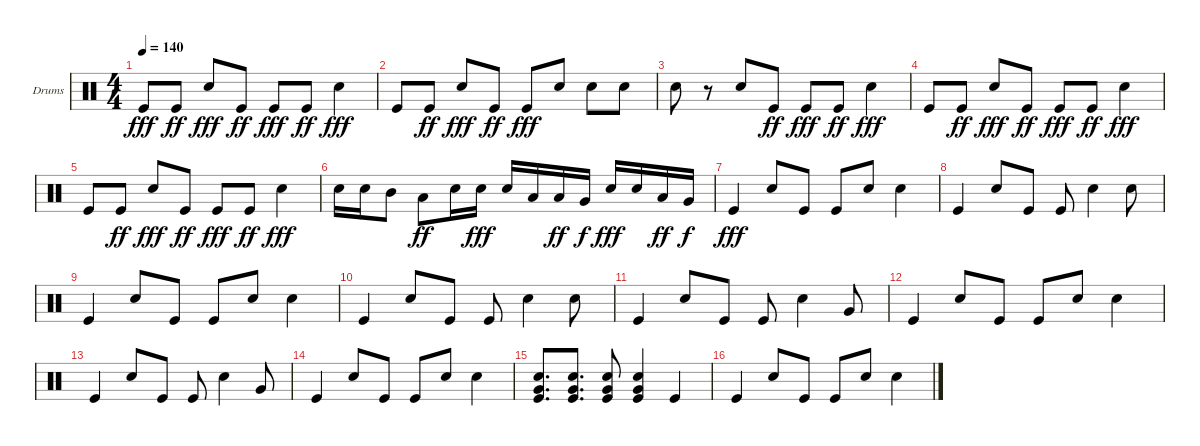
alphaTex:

\defaultSystemsLayout 4
\bracketExtendMode groupsimilarinstruments
\firstSystemTrackNameOrientation horizontal
\otherSystemsTrackNameOrientation horizontal
\track ("Helders" "Drums") {instrument percussion}
\staff {score}
\articulation defaults
\ts (4 4)
\tempo 140
\clef neutral
\ks c "Kick (hit)".8{dy fff} "Kick (hit)".8{dy ff} "Snare (hit) 2".8{dy fff} "Kick (hit)".8{dy ff} "Kick (hit)".8{dy fff} "Kick (hit)".8{dy ff} "Snare (hit) 2".4{dy fff}
|
"Kick (hit)".8 "Kick (hit)".8{dy ff} "Snare (hit) 2".8{dy fff} "Kick (hit)".8{dy ff} "Kick (hit)".8{dy fff} "Snare (hit) 2".8 "Snare (hit) 2".8 "Snare (hit) 2".8 |
"Snare (hit) 2".8 r.8 "Snare (hit) 2".8 "Kick (hit)".8{dy ff} "Kick (hit)".8{dy fff} "Kick (hit)".8{dy ff} "Snare (hit) 2".4{dy fff} |
"Kick (hit)".8 "Kick (hit)".8{dy ff} "Snare (hit) 2".8{dy fff} "Kick (hit)".8{dy ff} "Kick (hit)".8{dy fff} "Kick (hit)".8{dy ff} "Snare (hit) 2".4{dy fff} |
"Kick (hit)".8 "Kick (hit)".8{dy ff} "Snare (hit) 2".8{dy fff} "Kick (hit)".8{dy ff} "Kick (hit)".8{dy fff} "Kick (hit)".8{dy ff} "Snare (hit) 2".4{dy fff} |
"Snare (hit) 2".16 "Snare (hit) 2".16 "Mid Tom (hit)".8 "Low Tom (hit)".8{dy ff} "Snare (hit) 2".16 "Snare (hit) 2".16{dy fff} "Snare (hit) 2".16 "Low Tom (hit)".16 "Low Tom (hit)".16{dy ff} "Very Low Tom (hit)".16{dy f} "Snare (hit) 2".16{dy fff} "Snare (hit) 2".16 "Low Tom (hit)".16{dy ff} "Very Low Tom (hit)".16{dy f} |
"Kick (hit)".4{dy fff} "Snare (hit) 2".8 "Kick (hit)".8 "Kick (hit)".8 "Snare (hit) 2".8 "Snare (hit) 2".4 |
"Kick (hit)".4 "Snare (hit) 2".8 "Kick (hit)".8 "Kick (hit)".8 "Snare (hit) 2".4 "Snare (hit) 2".8 |
"Kick (hit)".4 "Snare (hit) 2".8 "Kick (hit)".8 "Kick (hit)".8 "Snare (hit) 2".8 "Snare (hit) 2".4 |
"Kick (hit)".4 "Snare (hit) 2".8 "Kick (hit)".8 "Kick (hit)".8 "Snare (hit) 2".4 "Snare (hit) 2".8 |
"Kick (hit)".4 "Snare (hit) 2".8 "Kick (hit)".8 "Kick (hit)".8 "Snare (hit) 2".4 "Very Low Tom (hit)".8 |
"Kick (hit)".4 "Snare (hit) 2".8 "Kick (hit)".8 "Kick (hit)".8 "Snare (hit) 2".8 "Snare (hit) 2".4 |
"Kick (hit)".4 "Snare (hit) 2".8 "Kick (hit)".8 "Kick (hit)".8 "Snare (hit) 2".4 "Very Low Tom (hit)".8 |
"Kick (hit)".4 "Snare (hit) 2".8 "Kick (hit)".8 "Kick (hit)".8 "Snare (hit) 2".8 "Snare (hit) 2".4 |
("Snare (hit) 2" "Kick (hit)" "Very Low Tom (hit)").8{d} ("Snare (hit) 2" "Kick (hit)" "Very Low Tom (hit)").8{d} ("Snare (hit) 2" "Kick (hit)" "Very Low Tom (hit)").8 ("Snare (hit) 2" "Kick (hit)" "Very Low Tom (hit)").4 "Kick (hit)".4 |
"Kick (hit)".4 "Snare (hit) 2".8 "Kick (hit)".8 "Kick (hit)".8 "Snare (hit) 2".8 "Snare (hit) 2".4
